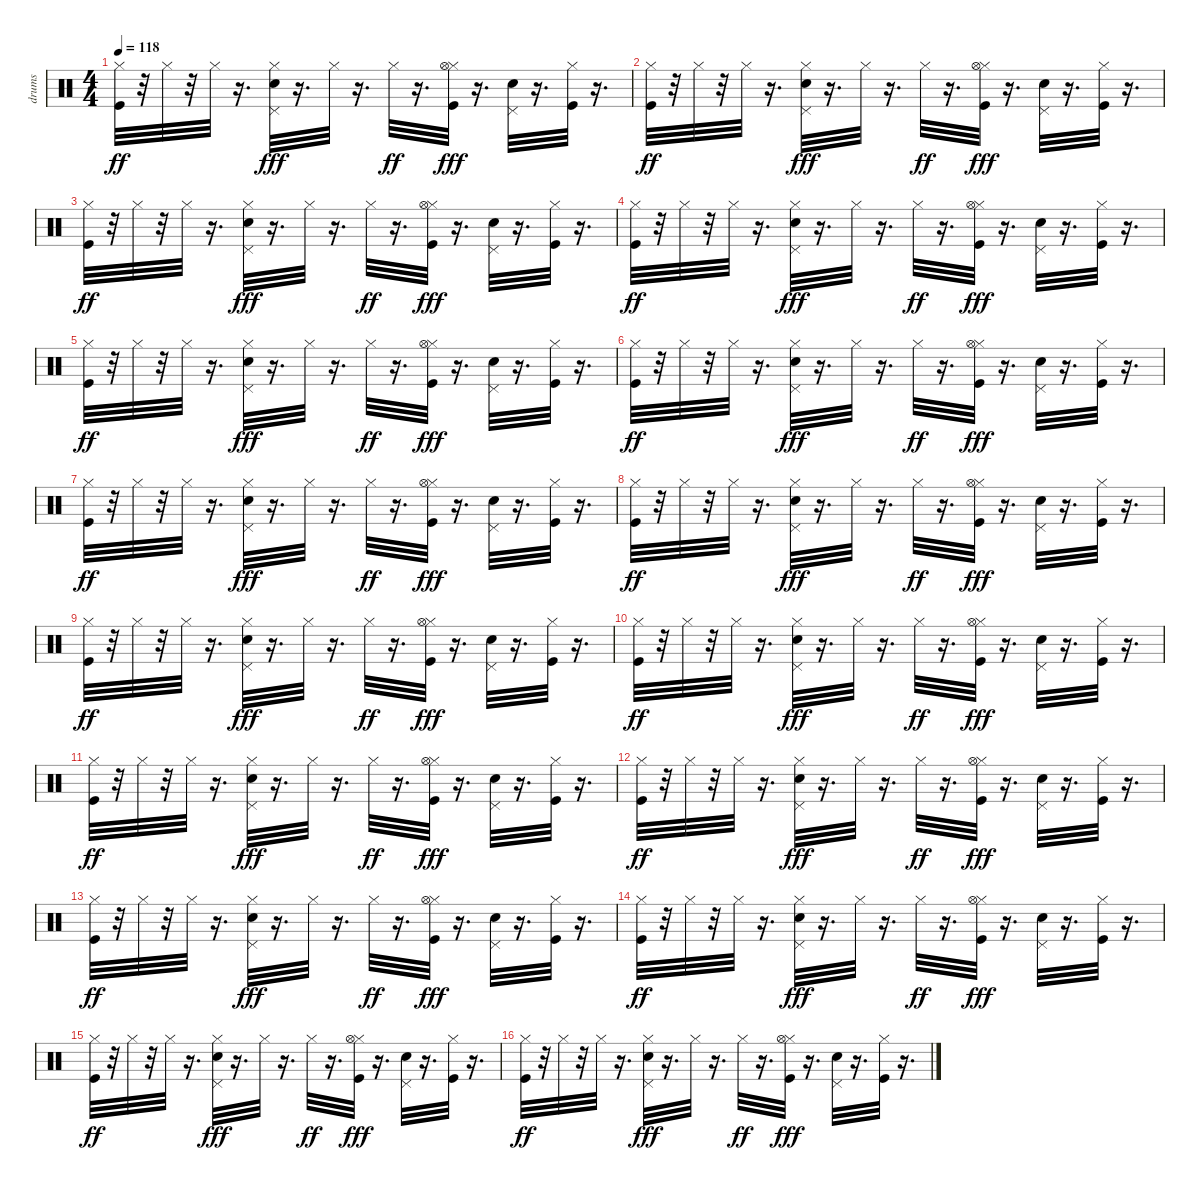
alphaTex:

\track ("drums   " "drums   ") {instrument percussion}
\staff {score}
\articulation defaults
\ts (4 4)
\tempo 118
\clef neutral
\ks c
("Kick (hit)" "Hi-Hat (closed)").32{dy ff} r.32 "Hi-Hat (closed)".32 r.32 "Hi-Hat (closed)".32 r.16{d} ("Electric Snare (hit)" "Hi-Hat (closed)" "Pedal Hi-Hat (hit)").32{dy fff} r.16{d} "Hi-Hat (closed)".32 r.16{d} "Hi-Hat (closed)".32{dy ff} r.16{d} ("Kick (hit)" "Hi-Hat (closed)" "Hi-Hat (open)").32{dy fff} r.16{d} ("Electric Snare (hit)" "Pedal Hi-Hat (hit)").32 r.16{d} ("Kick (hit)" "Hi-Hat (closed)").32 r.16{d} |
("Kick (hit)" "Hi-Hat (closed)").32{dy ff} r.32 "Hi-Hat (closed)".32 r.32 "Hi-Hat (closed)".32 r.16{d} ("Electric Snare (hit)" "Hi-Hat (closed)" "Pedal Hi-Hat (hit)").32{dy fff} r.16{d} "Hi-Hat (closed)".32 r.16{d} "Hi-Hat (closed)".32{dy ff} r.16{d} ("Kick (hit)" "Hi-Hat (closed)" "Hi-Hat (open)").32{dy fff} r.16{d} ("Electric Snare (hit)" "Pedal Hi-Hat (hit)").32 r.16{d} ("Kick (hit)" "Hi-Hat (closed)").32 r.16{d} |
("Kick (hit)" "Hi-Hat (closed)").32{dy ff} r.32 "Hi-Hat (closed)".32 r.32 "Hi-Hat (closed)".32 r.16{d} ("Electric Snare (hit)" "Hi-Hat (closed)" "Pedal Hi-Hat (hit)").32{dy fff} r.16{d} "Hi-Hat (closed)".32 r.16{d} "Hi-Hat (closed)".32{dy ff} r.16{d} ("Kick (hit)" "Hi-Hat (closed)" "Hi-Hat (open)").32{dy fff} r.16{d} ("Electric Snare (hit)" "Pedal Hi-Hat (hit)").32 r.16{d} ("Kick (hit)" "Hi-Hat (closed)").32 r.16{d} |
("Kick (hit)" "Hi-Hat (closed)").32{dy ff} r.32 "Hi-Hat (closed)".32 r.32 "Hi-Hat (closed)".32 r.16{d} ("Electric Snare (hit)" "Hi-Hat (closed)" "Pedal Hi-Hat (hit)").32{dy fff} r.16{d} "Hi-Hat (closed)".32 r.16{d} "Hi-Hat (closed)".32{dy ff} r.16{d} ("Kick (hit)" "Hi-Hat (closed)" "Hi-Hat (open)").32{dy fff} r.16{d} ("Electric Snare (hit)" "Pedal Hi-Hat (hit)").32 r.16{d} ("Kick (hit)" "Hi-Hat (closed)").32 r.16{d} |
("Kick (hit)" "Hi-Hat (closed)").32{dy ff} r.32 "Hi-Hat (closed)".32 r.32 "Hi-Hat (closed)".32 r.16{d} ("Electric Snare (hit)" "Hi-Hat (closed)" "Pedal Hi-Hat (hit)").32{dy fff} r.16{d} "Hi-Hat (closed)".32 r.16{d} "Hi-Hat (closed)".32{dy ff} r.16{d} ("Kick (hit)" "Hi-Hat (closed)" "Hi-Hat (open)").32{dy fff} r.16{d} ("Electric Snare (hit)" "Pedal Hi-Hat (hit)").32 r.16{d} ("Kick (hit)" "Hi-Hat (closed)").32 r.16{d} |
("Kick (hit)" "Hi-Hat (closed)").32{dy ff} r.32 "Hi-Hat (closed)".32 r.32 "Hi-Hat (closed)".32 r.16{d} ("Electric Snare (hit)" "Hi-Hat (closed)" "Pedal Hi-Hat (hit)").32{dy fff} r.16{d} "Hi-Hat (closed)".32 r.16{d} "Hi-Hat (closed)".32{dy ff} r.16{d} ("Kick (hit)" "Hi-Hat (closed)" "Hi-Hat (open)").32{dy fff} r.16{d} ("Electric Snare (hit)" "Pedal Hi-Hat (hit)").32 r.16{d} ("Kick (hit)" "Hi-Hat (closed)").32 r.16{d} |
("Kick (hit)" "Hi-Hat (closed)").32{dy ff} r.32 "Hi-Hat (closed)".32 r.32 "Hi-Hat (closed)".32 r.16{d} ("Electric Snare (hit)" "Hi-Hat (closed)" "Pedal Hi-Hat (hit)").32{dy fff} r.16{d} "Hi-Hat (closed)".32 r.16{d} "Hi-Hat (closed)".32{dy ff} r.16{d} ("Kick (hit)" "Hi-Hat (closed)" "Hi-Hat (open)").32{dy fff} r.16{d} ("Electric Snare (hit)" "Pedal Hi-Hat (hit)").32 r.16{d} ("Kick (hit)" "Hi-Hat (closed)").32 r.16{d} |
("Kick (hit)" "Hi-Hat (closed)").32{dy ff} r.32 "Hi-Hat (closed)".32 r.32 "Hi-Hat (closed)".32 r.16{d} ("Electric Snare (hit)" "Hi-Hat (closed)" "Pedal Hi-Hat (hit)").32{dy fff} r.16{d} "Hi-Hat (closed)".32 r.16{d} "Hi-Hat (closed)".32{dy ff} r.16{d} ("Kick (hit)" "Hi-Hat (closed)" "Hi-Hat (open)").32{dy fff} r.16{d} ("Electric Snare (hit)" "Pedal Hi-Hat (hit)").32 r.16{d} ("Kick (hit)" "Hi-Hat (closed)").32 r.16{d} |
("Kick (hit)" "Hi-Hat (closed)").32{dy ff} r.32 "Hi-Hat (closed)".32 r.32 "Hi-Hat (closed)".32 r.16{d} ("Electric Snare (hit)" "Hi-Hat (closed)" "Pedal Hi-Hat (hit)").32{dy fff} r.16{d} "Hi-Hat (closed)".32 r.16{d} "Hi-Hat (closed)".32{dy ff} r.16{d} ("Kick (hit)" "Hi-Hat (closed)" "Hi-Hat (open)").32{dy fff} r.16{d} ("Electric Snare (hit)" "Pedal Hi-Hat (hit)").32 r.16{d} ("Kick (hit)" "Hi-Hat (closed)").32 r.16{d} |
("Kick (hit)" "Hi-Hat (closed)").32{dy ff} r.32 "Hi-Hat (closed)".32 r.32 "Hi-Hat (closed)".32 r.16{d} ("Electric Snare (hit)" "Hi-Hat (closed)" "Pedal Hi-Hat (hit)").32{dy fff} r.16{d} "Hi-Hat (closed)".32 r.16{d} "Hi-Hat (closed)".32{dy ff} r.16{d} ("Kick (hit)" "Hi-Hat (closed)" "Hi-Hat (open)").32{dy fff} r.16{d} ("Electric Snare (hit)" "Pedal Hi-Hat (hit)").32 r.16{d} ("Kick (hit)" "Hi-Hat (closed)").32 r.16{d} |
("Kick (hit)" "Hi-Hat (closed)").32{dy ff} r.32 "Hi-Hat (closed)".32 r.32 "Hi-Hat (closed)".32 r.16{d} ("Electric Snare (hit)" "Hi-Hat (closed)" "Pedal Hi-Hat (hit)").32{dy fff} r.16{d} "Hi-Hat (closed)".32 r.16{d} "Hi-Hat (closed)".32{dy ff} r.16{d} ("Kick (hit)" "Hi-Hat (closed)" "Hi-Hat (open)").32{dy fff} r.16{d} ("Electric Snare (hit)" "Pedal Hi-Hat (hit)").32 r.16{d} ("Kick (hit)" "Hi-Hat (closed)").32 r.16{d} |
("Kick (hit)" "Hi-Hat (closed)").32{dy ff} r.32 "Hi-Hat (closed)".32 r.32 "Hi-Hat (closed)".32 r.16{d} ("Electric Snare (hit)" "Hi-Hat (closed)" "Pedal Hi-Hat (hit)").32{dy fff} r.16{d} "Hi-Hat (closed)".32 r.16{d} "Hi-Hat (closed)".32{dy ff} r.16{d} ("Kick (hit)" "Hi-Hat (closed)" "Hi-Hat (open)").32{dy fff} r.16{d} ("Electric Snare (hit)" "Pedal Hi-Hat (hit)").32 r.16{d} ("Kick (hit)" "Hi-Hat (closed)").32 r.16{d} |
("Kick (hit)" "Hi-Hat (closed)").32{dy ff} r.32 "Hi-Hat (closed)".32 r.32 "Hi-Hat (closed)".32 r.16{d} ("Electric Snare (hit)" "Hi-Hat (closed)" "Pedal Hi-Hat (hit)").32{dy fff} r.16{d} "Hi-Hat (closed)".32 r.16{d} "Hi-Hat (closed)".32{dy ff} r.16{d} ("Kick (hit)" "Hi-Hat (closed)" "Hi-Hat (open)").32{dy fff} r.16{d} ("Electric Snare (hit)" "Pedal Hi-Hat (hit)").32 r.16{d} ("Kick (hit)" "Hi-Hat (closed)").32 r.16{d} |
("Kick (hit)" "Hi-Hat (closed)").32{dy ff} r.32 "Hi-Hat (closed)".32 r.32 "Hi-Hat (closed)".32 r.16{d} ("Electric Snare (hit)" "Hi-Hat (closed)" "Pedal Hi-Hat (hit)").32{dy fff} r.16{d} "Hi-Hat (closed)".32 r.16{d} "Hi-Hat (closed)".32{dy ff} r.16{d} ("Kick (hit)" "Hi-Hat (closed)" "Hi-Hat (open)").32{dy fff} r.16{d} ("Electric Snare (hit)" "Pedal Hi-Hat (hit)").32 r.16{d} ("Kick (hit)" "Hi-Hat (closed)").32 r.16{d} |
("Kick (hit)" "Hi-Hat (closed)").32{dy ff} r.32 "Hi-Hat (closed)".32 r.32 "Hi-Hat (closed)".32 r.16{d} ("Electric Snare (hit)" "Hi-Hat (closed)" "Pedal Hi-Hat (hit)").32{dy fff} r.16{d} "Hi-Hat (closed)".32 r.16{d} "Hi-Hat (closed)".32{dy ff} r.16{d} ("Kick (hit)" "Hi-Hat (closed)" "Hi-Hat (open)").32{dy fff} r.16{d} ("Electric Snare (hit)" "Pedal Hi-Hat (hit)").32 r.16{d} ("Kick (hit)" "Hi-Hat (closed)").32 r.16{d} |
("Kick (hit)" "Hi-Hat (closed)").32{dy ff} r.32 "Hi-Hat (closed)".32 r.32 "Hi-Hat (closed)".32 r.16{d} ("Electric Snare (hit)" "Hi-Hat (closed)" "Pedal Hi-Hat (hit)").32{dy fff} r.16{d} "Hi-Hat (closed)".32 r.16{d} "Hi-Hat (closed)".32{dy ff} r.16{d} ("Kick (hit)" "Hi-Hat (closed)" "Hi-Hat (open)").32{dy fff} r.16{d} ("Electric Snare (hit)" "Pedal Hi-Hat (hit)").32 r.16{d} ("Kick (hit)" "Hi-Hat (closed)").32 r.16{d}
